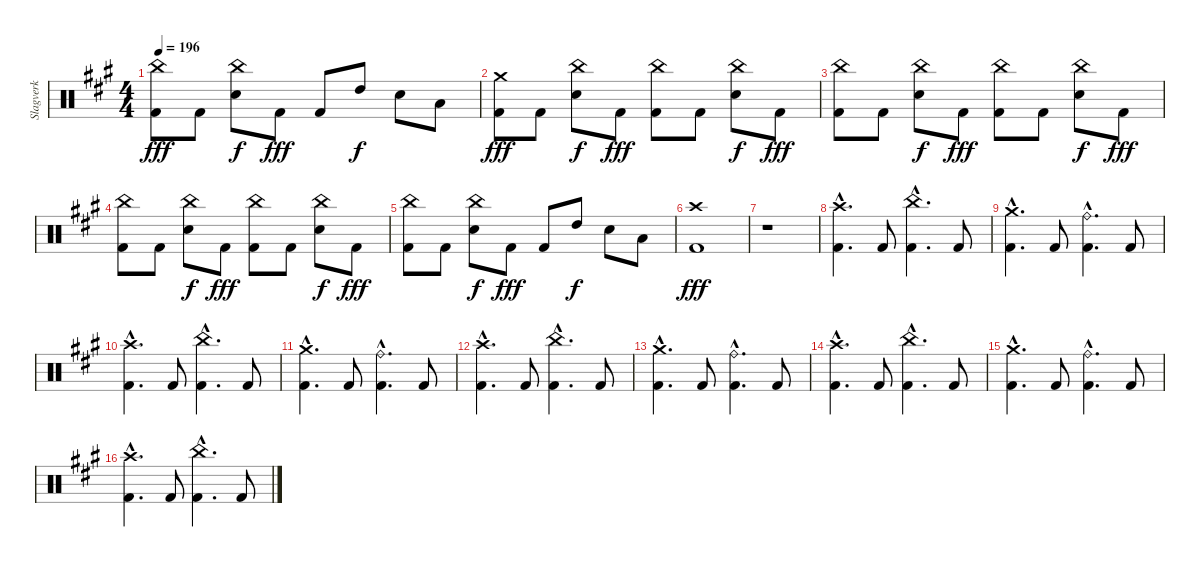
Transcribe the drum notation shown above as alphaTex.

\track ("Slagverk" "Slagverk") {instrument percussion}
\staff {score}
\articulation defaults
\ts (4 4)
\tempo 196
\clef neutral
\ks a
("China (hit)" "Kick (hit) 2").8{dy fff} "Kick (hit) 2".8 ("China (hit)" "Snare (hit) 2").8{dy f} "Kick (hit) 2".8{dy fff} "Kick (hit) 2".8 "High Tom (hit)".8{dy f} "Snare (hit) 2".8 "Low Tom (hit)".8 |
("Crash medium (hit)" "Kick (hit) 2").8{dy fff} "Kick (hit) 2".8 ("China (hit)" "Snare (hit) 2").8{dy f} "Kick (hit) 2".8{dy fff} ("China (hit)" "Kick (hit) 2").8 "Kick (hit) 2".8 ("China (hit)" "Snare (hit) 2").8{dy f} "Kick (hit) 2".8{dy fff} |
("China (hit)" "Kick (hit) 2").8 "Kick (hit) 2".8 ("China (hit)" "Snare (hit) 2").8{dy f} "Kick (hit) 2".8{dy fff} ("China (hit)" "Kick (hit) 2").8 "Kick (hit) 2".8 ("China (hit)" "Snare (hit) 2").8{dy f} "Kick (hit) 2".8{dy fff} |
("China (hit)" "Kick (hit) 2").8 "Kick (hit) 2".8 ("China (hit)" "Snare (hit) 2").8{dy f} "Kick (hit) 2".8{dy fff} ("China (hit)" "Kick (hit) 2").8 "Kick (hit) 2".8 ("China (hit)" "Snare (hit) 2").8{dy f} "Kick (hit) 2".8{dy fff} |
("China (hit)" "Kick (hit) 2").8 "Kick (hit) 2".8 ("China (hit)" "Snare (hit) 2").8{dy f} "Kick (hit) 2".8{dy fff} "Kick (hit) 2".8 "High Tom (hit)".8{dy f} "Snare (hit) 2".8 "Low Tom (hit)".8 |
("Crash high (hit)" "Kick (hit) 2").1{dy fff} |
r.1 |
("Crash high (hit)"{hac} "Kick (hit) 2"{hac}).4{d} "Kick (hit) 2".8 ("China (hit)"{hac} "Kick (hit) 2"{hac}).4{d} "Kick (hit) 2".8 |
("Crash medium (hit)"{hac} "Kick (hit) 2"{hac}).4{d} "Kick (hit) 2".8 ("Ride (bell)"{hac} "Kick (hit) 2"{hac}).4{d} "Kick (hit) 2".8 |
("Crash high (hit)"{hac} "Kick (hit) 2"{hac}).4{d} "Kick (hit) 2".8 ("China (hit)"{hac} "Kick (hit) 2"{hac}).4{d} "Kick (hit) 2".8 |
("Crash medium (hit)"{hac} "Kick (hit) 2"{hac}).4{d} "Kick (hit) 2".8 ("Ride (bell)"{hac} "Kick (hit) 2"{hac}).4{d} "Kick (hit) 2".8 |
("Crash high (hit)"{hac} "Kick (hit) 2"{hac}).4{d} "Kick (hit) 2".8 ("China (hit)"{hac} "Kick (hit) 2"{hac}).4{d} "Kick (hit) 2".8 |
("Crash medium (hit)"{hac} "Kick (hit) 2"{hac}).4{d} "Kick (hit) 2".8 ("Ride (bell)"{hac} "Kick (hit) 2"{hac}).4{d} "Kick (hit) 2".8 |
("Crash high (hit)"{hac} "Kick (hit) 2"{hac}).4{d} "Kick (hit) 2".8 ("China (hit)"{hac} "Kick (hit) 2"{hac}).4{d} "Kick (hit) 2".8 |
("Crash medium (hit)"{hac} "Kick (hit) 2"{hac}).4{d} "Kick (hit) 2".8 ("Ride (bell)"{hac} "Kick (hit) 2"{hac}).4{d} "Kick (hit) 2".8 |
("Crash high (hit)"{hac} "Kick (hit) 2"{hac}).4{d} "Kick (hit) 2".8 ("China (hit)"{hac} "Kick (hit) 2"{hac}).4{d} "Kick (hit) 2".8
